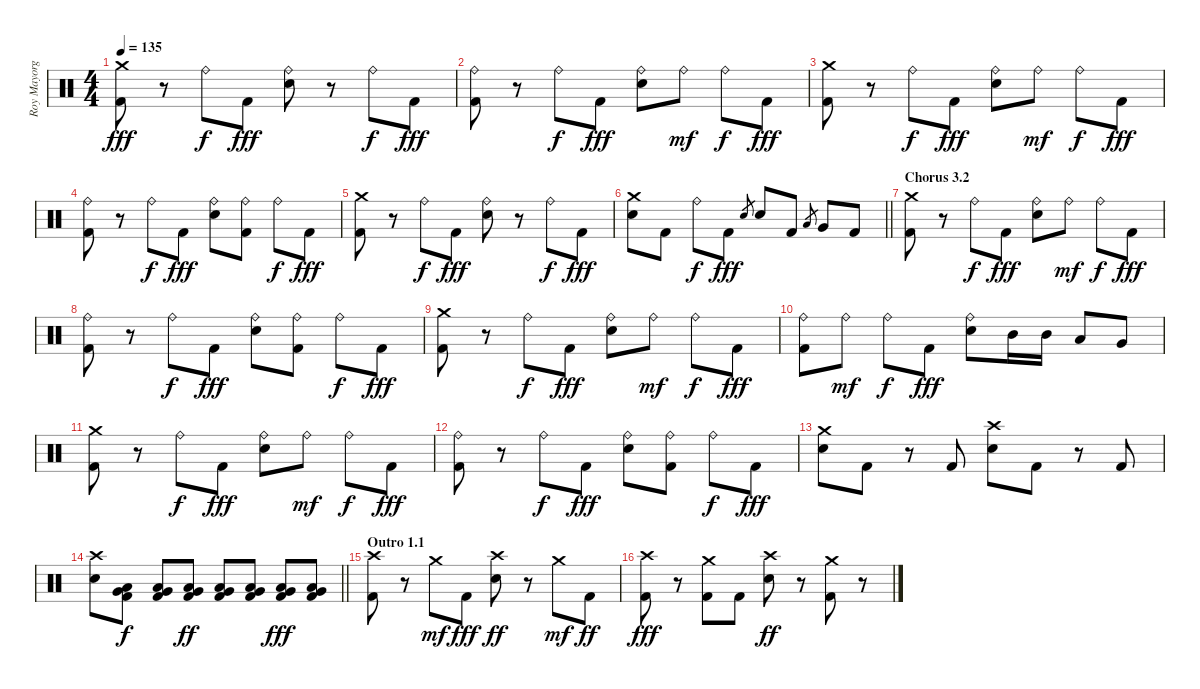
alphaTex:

\track ("Roy Mayorga" "Roy Mayorg") {instrument percussion}
\staff {score}
\articulation defaults
\ts (4 4)
\tempo 135
\clef neutral
\ks c
("Crash medium (hit)" "Kick (hit) 2").8{dy fff} r.8 "Ride (bell)".8{dy f} "Kick (hit) 2".8{dy fff} ("Ride (bell)" "Electric Snare (hit)").8 r.8 "Ride (bell)".8{dy f} "Kick (hit) 2".8{dy fff} |
("Ride (bell)" "Kick (hit) 2").8 r.8 "Ride (bell)".8{dy f} "Kick (hit) 2".8{dy fff} ("Ride (bell)" "Electric Snare (hit)").8 "Ride (bell)".8{dy mf} "Ride (bell)".8{dy f} "Kick (hit) 2".8{dy fff} |
("Crash medium (hit)" "Kick (hit) 2").8 r.8 "Ride (bell)".8{dy f} "Kick (hit) 2".8{dy fff} ("Ride (bell)" "Electric Snare (hit)").8 "Ride (bell)".8{dy mf} "Ride (bell)".8{dy f} "Kick (hit) 2".8{dy fff} |
("Ride (bell)" "Kick (hit) 2").8 r.8 "Ride (bell)".8{dy f} "Kick (hit) 2".8{dy fff} ("Ride (bell)" "Electric Snare (hit)").8 ("Ride (bell)" "Kick (hit) 2").8 "Ride (bell)".8{dy f} "Kick (hit) 2".8{dy fff} |
("Crash medium (hit)" "Kick (hit) 2").8 r.8 "Ride (bell)".8{dy f} "Kick (hit) 2".8{dy fff} ("Ride (bell)" "Electric Snare (hit)").8 r.8 "Ride (bell)".8{dy f} "Kick (hit) 2".8{dy fff} |
\barLineRight lightlight
("Crash medium (hit)" "Electric Snare (hit)").8 "Kick (hit) 2".8 "Ride (bell)".8{dy f} "Kick (hit) 2".8{dy fff} "Electric Snare (hit)".8{gr} "Electric Snare (hit)".8 "Kick (hit) 2".8 "Low Floor Tom (hit)".8{gr} "Very Low Tom (hit)".8 "Kick (hit) 2".8 |
\section ("" "Chorus 3.2")
("Crash medium (hit)" "Kick (hit) 2").8 r.8 "Ride (bell)".8{dy f} "Kick (hit) 2".8{dy fff} ("Ride (bell)" "Electric Snare (hit)").8 "Ride (bell)".8{dy mf} "Ride (bell)".8{dy f} "Kick (hit) 2".8{dy fff} |
("Ride (bell)" "Kick (hit) 2").8 r.8 "Ride (bell)".8{dy f} "Kick (hit) 2".8{dy fff} ("Ride (bell)" "Electric Snare (hit)").8 ("Ride (bell)" "Kick (hit) 2").8 "Ride (bell)".8{dy f} "Kick (hit) 2".8{dy fff} |
("Crash medium (hit)" "Kick (hit) 2").8 r.8 "Ride (bell)".8{dy f} "Kick (hit) 2".8{dy fff} ("Ride (bell)" "Electric Snare (hit)").8 "Ride (bell)".8{dy mf} "Ride (bell)".8{dy f} "Kick (hit) 2".8{dy fff} |
("Ride (bell)" "Kick (hit) 2").8 "Ride (bell)".8{dy mf} "Ride (bell)".8{dy f} "Kick (hit) 2".8{dy fff} ("Ride (bell)" "Electric Snare (hit)").8 "Mid Tom (hit)".16 "Mid Tom (hit)".16 "Low Tom (hit)".8 "Very Low Tom (hit)".8 |
("Crash medium (hit)" "Kick (hit) 2").8 r.8 "Ride (bell)".8{dy f} "Kick (hit) 2".8{dy fff} ("Ride (bell)" "Electric Snare (hit)").8 "Ride (bell)".8{dy mf} "Ride (bell)".8{dy f} "Kick (hit) 2".8{dy fff} |
("Ride (bell)" "Kick (hit) 2").8 r.8 "Ride (bell)".8{dy f} "Kick (hit) 2".8{dy fff} ("Ride (bell)" "Electric Snare (hit)").8 ("Ride (bell)" "Kick (hit) 2").8 "Ride (bell)".8{dy f} "Kick (hit) 2".8{dy fff} |
("Crash medium (hit)" "Electric Snare (hit)").8 "Kick (hit) 2".8 r.8 "Kick (hit) 2".8 ("Crash high (hit)" "Electric Snare (hit)").8 "Kick (hit) 2".8 r.8 "Kick (hit) 2".8 |
\barLineRight lightlight
("Crash high (hit)" "Electric Snare (hit)").8 ("Very Low Tom (hit)" "Low Floor Tom (hit)" "Kick (hit) 2").8{dy f} ("Very Low Tom (hit)" "Low Floor Tom (hit)" "Kick (hit) 2").8 ("Very Low Tom (hit)" "Low Floor Tom (hit)" "Kick (hit) 2").8{dy ff} ("Very Low Tom (hit)" "Low Floor Tom (hit)" "Kick (hit) 2").8 ("Very Low Tom (hit)" "Low Floor Tom (hit)" "Kick (hit) 2").8 ("Very Low Tom (hit)" "Low Floor Tom (hit)" "Kick (hit) 2").8{dy fff} ("Very Low Tom (hit)" "Low Floor Tom (hit)" "Kick (hit) 2").8 |
\section ("" "Outro 1.1")
("Crash high (hit)" "Kick (hit) 2").8 r.8 "Crash medium (hit)".8{dy mf} "Kick (hit) 2".8{dy fff} ("Crash high (hit)" "Electric Snare (hit)").8{dy ff} r.8 "Crash medium (hit)".8{dy mf} "Kick (hit) 2".8{dy ff} |
("Crash high (hit)" "Kick (hit) 2").8{dy fff} r.8 ("Crash medium (hit)" "Kick (hit) 2").8 "Kick (hit) 2".8 ("Crash high (hit)" "Electric Snare (hit)").8{dy ff} r.8 ("Crash medium (hit)" "Kick (hit) 2").8 r.8
